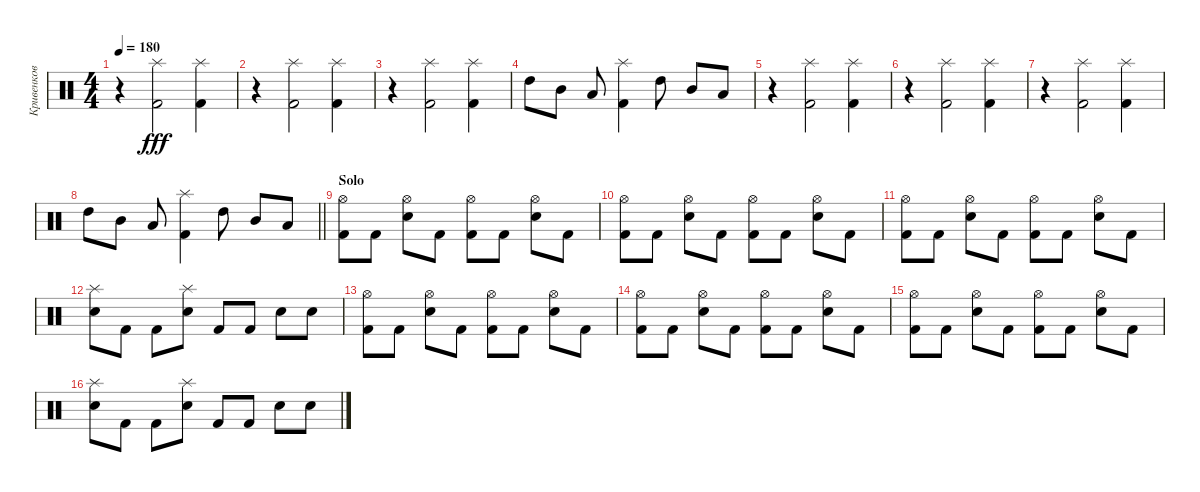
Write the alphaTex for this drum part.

\track ("Кривенков" "Кривенков") {instrument percussion}
\staff {score}
\articulation defaults
\ts (4 4)
\tempo 180
\clef neutral
\ks c
r.4{dy fff} ("Kick (hit) 2" "Splash (hit)").2 ("Splash (hit)" "Kick (hit) 2").4 |
r.4 ("Kick (hit) 2" "Splash (hit)").2 ("Splash (hit)" "Kick (hit) 2").4 |
r.4 ("Kick (hit) 2" "Splash (hit)").2 ("Splash (hit)" "Kick (hit) 2").4 |
"High Tom (hit)".8 "Mid Tom (hit)".8 "Low Tom (hit)".8 ("Kick (hit) 2" "Splash (hit)").4 "High Tom (hit)".8 "Mid Tom (hit)".8 "Low Tom (hit)".8 |
r.4 ("Kick (hit) 2" "Splash (hit)").2 ("Splash (hit)" "Kick (hit) 2").4 |
r.4 ("Kick (hit) 2" "Splash (hit)").2 ("Splash (hit)" "Kick (hit) 2").4 |
r.4 ("Kick (hit) 2" "Splash (hit)").2 ("Kick (hit) 2" "Splash (hit)").4 |
\barLineRight lightlight "High Tom (hit)".8 "Mid Tom (hit)".8 "Low Tom (hit)".8
("Kick (hit) 2" "Splash (hit)").4 "High Tom (hit)".8 "Mid Tom (hit)".8 "Low Tom (hit)".8 |
\section ("" "Solo")
("Hi-Hat (open)" "Kick (hit) 2").8 "Kick (hit) 2".8 ("Hi-Hat (open)" "Snare (hit) 2").8 "Kick (hit) 2".8 ("Kick (hit) 2" "Hi-Hat (open)").8 "Kick (hit) 2".8 ("Snare (hit) 2" "Hi-Hat (open)").8 "Kick (hit) 2".8 |
("Hi-Hat (open)" "Kick (hit) 2").8 "Kick (hit) 2".8 ("Hi-Hat (open)" "Snare (hit) 2").8 "Kick (hit) 2".8 ("Hi-Hat (open)" "Kick (hit) 2").8 "Kick (hit) 2".8 ("Snare (hit) 2" "Hi-Hat (open)").8 "Kick (hit) 2".8 |
("Hi-Hat (open)" "Kick (hit) 2").8 "Kick (hit) 2".8 ("Snare (hit) 2" "Hi-Hat (open)").8 "Kick (hit) 2".8 ("Hi-Hat (open)" "Kick (hit) 2").8 "Kick (hit) 2".8 ("Hi-Hat (open)" "Snare (hit) 2").8 "Kick (hit) 2".8 |
("Electric Snare (hit)" "Splash (hit)").8 "Kick (hit) 2".8 "Kick (hit) 2".8 ("Splash (hit)" "Electric Snare (hit)").8 "Kick (hit) 2".8 "Kick (hit) 2".8 "Electric Snare (hit)".8 "Electric Snare (hit)".8 |
("Hi-Hat (open)" "Kick (hit) 2").8 "Kick (hit) 2".8 ("Snare (hit) 2" "Hi-Hat (open)").8 "Kick (hit) 2".8 ("Kick (hit) 2" "Hi-Hat (open)").8 "Kick (hit) 2".8 ("Snare (hit) 2" "Hi-Hat (open)").8 "Kick (hit) 2".8 |
("Kick (hit) 2" "Hi-Hat (open)").8 "Kick (hit) 2".8 ("Snare (hit) 2" "Hi-Hat (open)").8 "Kick (hit) 2".8 ("Hi-Hat (open)" "Kick (hit) 2").8 "Kick (hit) 2".8 ("Hi-Hat (open)" "Snare (hit) 2").8 "Kick (hit) 2".8 |
("Hi-Hat (open)" "Kick (hit) 2").8 "Kick (hit) 2".8 ("Snare (hit) 2" "Hi-Hat (open)").8 "Kick (hit) 2".8 ("Hi-Hat (open)" "Kick (hit) 2").8 "Kick (hit) 2".8 ("Hi-Hat (open)" "Snare (hit) 2").8 "Kick (hit) 2".8 |
("Electric Snare (hit)" "Splash (hit)").8 "Kick (hit) 2".8 "Kick (hit) 2".8 ("Electric Snare (hit)" "Splash (hit)").8 "Kick (hit) 2".8 "Kick (hit) 2".8 "Electric Snare (hit)".8 "Electric Snare (hit)".8
